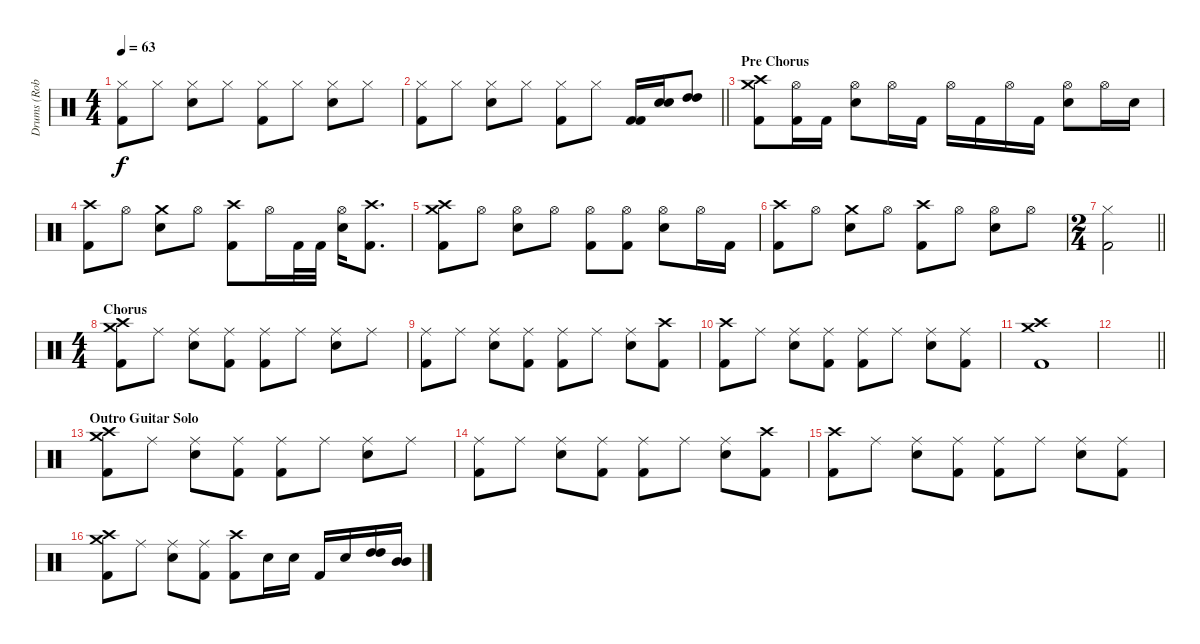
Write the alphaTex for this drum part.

\track ("Drums (Rob Affuso)" "Drums (Rob") {instrument percussion}
\staff {score}
\articulation defaults
\ts (4 4)
\tempo 63
\clef neutral
\ks c
("Hi-Hat (closed)" "Kick (hit) 2").8{dy f} "Hi-Hat (closed)".8 ("Hi-Hat (closed)" "Electric Snare (hit)").8 "Hi-Hat (closed)".8 ("Hi-Hat (closed)" "Kick (hit) 2").8 "Hi-Hat (closed)".8 ("Hi-Hat (closed)" "Electric Snare (hit)").8 "Hi-Hat (closed)".8 |
\barLineRight lightlight
("Hi-Hat (closed)" "Kick (hit) 2").8 "Hi-Hat (closed)".8 ("Hi-Hat (closed)" "Electric Snare (hit)").8 "Hi-Hat (closed)".8 ("Hi-Hat (closed)" "Kick (hit) 2").8 "Hi-Hat (closed)".8 ("Kick (hit) 2" "Kick (hit) 2").16 ("Electric Snare (hit)" "Electric Snare (hit)").16 ("High Tom (hit)" "High Tom (hit)").8 |
\section ("" "Pre Chorus")
("Crash medium (hit)" "Crash high (hit)" "Kick (hit) 2").8 ("Hi-Hat (open)" "Kick (hit) 2").16 "Kick (hit) 2".16 ("Hi-Hat (open)" "Electric Snare (hit)").8 "Hi-Hat (open)".16 "Kick (hit) 2".16 "Hi-Hat (open)".16 "Kick (hit) 2".16 "Hi-Hat (open)".16 "Kick (hit) 2".16 ("Hi-Hat (open)" "Electric Snare (hit)").8 "Hi-Hat (open)".16 "Electric Snare (hit)".16 |
("Crash high (hit)" "Kick (hit) 2").8 "Hi-Hat (open)".8 ("Crash medium (hit)" "Electric Snare (hit)").8 "Hi-Hat (open)".8 ("Crash high (hit)" "Kick (hit) 2").8 "Hi-Hat (open)".16 "Kick (hit) 2".32 "Kick (hit) 2".32 ("Hi-Hat (open)" "Electric Snare (hit)").16 ("Crash high (hit)" "Kick (hit) 2").8{d} |
("Crash medium (hit)" "Crash high (hit)" "Kick (hit) 2").8 "Hi-Hat (open)".8 ("Hi-Hat (open)" "Electric Snare (hit)").8 "Hi-Hat (open)".8 ("Hi-Hat (open)" "Kick (hit) 2").8 ("Hi-Hat (open)" "Kick (hit) 2").8 ("Hi-Hat (open)" "Electric Snare (hit)").8 "Hi-Hat (open)".16 "Kick (hit) 2".16 |
("Crash high (hit)" "Kick (hit) 2").8 "Hi-Hat (open)".8 ("Crash medium (hit)" "Electric Snare (hit)").8 "Hi-Hat (open)".8 ("Crash high (hit)" "Kick (hit) 2").8 "Hi-Hat (open)".8 ("Hi-Hat (open)" "Electric Snare (hit)").8 "Hi-Hat (open)".8 |
\ts (2 4)
\barLineRight lightlight
("Hi-Hat (closed)" "Kick (hit) 2").2 |
\ts (4 4)
\section ("" "Chorus")
("Crash medium (hit)" "Crash high (hit)" "Kick (hit) 2").8 "Ride (middle)".8 ("Ride (middle)" "Electric Snare (hit)").8 ("Ride (middle)" "Kick (hit) 2").8 ("Ride (middle)" "Kick (hit) 2").8 "Ride (middle)".8 ("Ride (middle)" "Electric Snare (hit)").8 "Ride (middle)".8 |
("Ride (middle)" "Kick (hit) 2").8 "Ride (middle)".8 ("Ride (middle)" "Electric Snare (hit)").8 ("Ride (middle)" "Kick (hit) 2").8 ("Ride (middle)" "Kick (hit) 2").8 "Ride (middle)".8 ("Ride (middle)" "Electric Snare (hit)").8 ("Crash high (hit)" "Kick (hit) 2").8 |
("Crash high (hit)" "Kick (hit) 2").8 "Ride (middle)".8 ("Ride (middle)" "Electric Snare (hit)").8 ("Ride (middle)" "Kick (hit) 2").8 ("Ride (middle)" "Kick (hit) 2").8 "Ride (middle)".8 ("Ride (middle)" "Electric Snare (hit)").8 ("Ride (middle)" "Kick (hit) 2").8 |
("Crash medium (hit)" "Crash high (hit)" "Kick (hit) 2").1 |
\barLineRight lightlight
|
\section ("" "Outro Guitar Solo")
("Crash medium (hit)" "Crash high (hit)" "Kick (hit) 2").8 "Ride (middle)".8 ("Ride (middle)" "Electric Snare (hit)").8 ("Ride (middle)" "Kick (hit) 2").8 ("Ride (middle)" "Kick (hit) 2").8 "Ride (middle)".8 ("Ride (middle)" "Electric Snare (hit)").8 "Ride (middle)".8 |
("Ride (middle)" "Kick (hit) 2").8 "Ride (middle)".8 ("Ride (middle)" "Electric Snare (hit)").8 ("Ride (middle)" "Kick (hit) 2").8 ("Ride (middle)" "Kick (hit) 2").8 "Ride (middle)".8 ("Ride (middle)" "Electric Snare (hit)").8 ("Crash high (hit)" "Kick (hit) 2").8 |
("Crash high (hit)" "Kick (hit) 2").8 "Ride (middle)".8 ("Ride (middle)" "Electric Snare (hit)").8 ("Ride (middle)" "Kick (hit) 2").8 ("Ride (middle)" "Kick (hit) 2").8 "Ride (middle)".8 ("Ride (middle)" "Electric Snare (hit)").8 ("Ride (middle)" "Kick (hit) 2").8 |
("Crash medium (hit)" "Crash high (hit)" "Kick (hit) 2").8 "Ride (middle)".8 ("Ride (middle)" "Electric Snare (hit)").8 ("Ride (middle)" "Kick (hit) 2").8 ("Crash high (hit)" "Kick (hit) 2").8 "Electric Snare (hit)".16 "Electric Snare (hit)".16 "Kick (hit) 2".16 "Electric Snare (hit)".16 ("High Tom (hit)" "High Tom (hit)").16 ("Mid Tom (hit)" "Mid Tom (hit)").16
